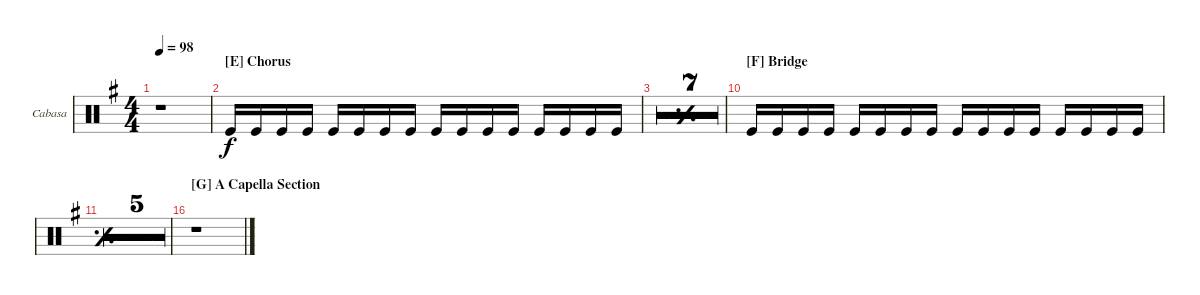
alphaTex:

\defaultSystemsLayout 4
\bracketExtendMode groupsimilarinstruments
\firstSystemTrackNameOrientation horizontal
\otherSystemsTrackNameOrientation horizontal
\track ("Cabasa" "Cabasa") {multiBarRest instrument percussion}
\staff {score}
\articulation defaults
\ts (4 4)
\tempo 98
\clef neutral
\ks g
r.1{dy f} |
\section ("E" "Chorus")
"Kick (hit)".16 "Kick (hit)".16 "Kick (hit)".16 "Kick (hit)".16 "Kick (hit)".16 "Kick (hit)".16 "Kick (hit)".16 "Kick (hit)".16 "Kick (hit)".16 "Kick (hit)".16 "Kick (hit)".16 "Kick (hit)".16 "Kick (hit)".16 "Kick (hit)".16 "Kick (hit)".16 "Kick (hit)".16 |
\simile simple
|
|
|
|
|
|
|
\section ("F" "Bridge")
\simile none "Kick (hit)".16 "Kick (hit)".16 "Kick (hit)".16 "Kick (hit)".16 "Kick (hit)".16 "Kick (hit)".16 "Kick (hit)".16 "Kick (hit)".16 "Kick (hit)".16 "Kick (hit)".16 "Kick (hit)".16 "Kick (hit)".16 "Kick (hit)".16 "Kick (hit)".16 "Kick (hit)".16 "Kick (hit)".16
|
\simile simple
|
|
|
|
|
\section ("G" "A Capella Section")
\simile none
r.1
